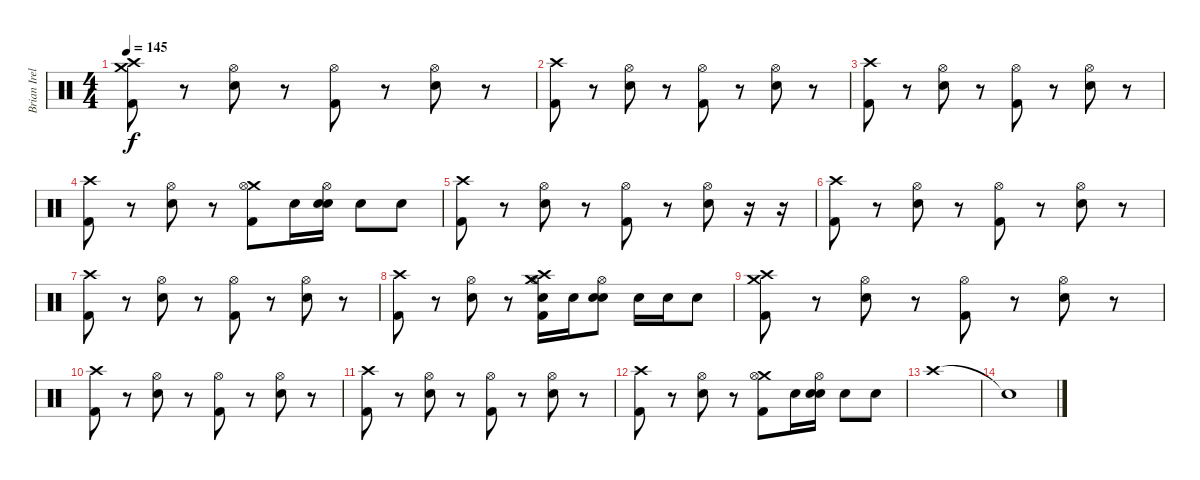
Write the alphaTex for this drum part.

\track ("Brian Ireland" "Brian Irel") {instrument percussion}
\staff {score}
\articulation defaults
\ts (4 4)
\tempo 145
\clef neutral
\ks c
("Crash medium (hit)" "Crash high (hit)" "Kick (hit) 2").8{dy f} r.8 ("Hi-Hat (open)" "Electric Snare (hit)").8 r.8 ("Hi-Hat (open)" "Kick (hit) 2").8 r.8 ("Hi-Hat (open)" "Electric Snare (hit)").8 r.8 |
("Crash high (hit)" "Kick (hit) 2").8 r.8 ("Hi-Hat (open)" "Electric Snare (hit)").8 r.8 ("Hi-Hat (open)" "Kick (hit) 2").8 r.8 ("Hi-Hat (open)" "Electric Snare (hit)").8 r.8 |
("Crash high (hit)" "Kick (hit) 2").8 r.8 ("Hi-Hat (open)" "Electric Snare (hit)").8 r.8 ("Hi-Hat (open)" "Kick (hit) 2").8 r.8 ("Hi-Hat (open)" "Electric Snare (hit)").8 r.8 |
("Crash high (hit)" "Kick (hit) 2").8 r.8 ("Hi-Hat (open)" "Electric Snare (hit)").8 r.8 ("Crash medium (hit)" "Hi-Hat (open)" "Kick (hit) 2").8 "Electric Snare (hit)".16 ("Electric Snare (hit)" "Hi-Hat (open)" "Electric Snare (hit)").16 "Electric Snare (hit)".8 "Electric Snare (hit)".8 |
("Crash high (hit)" "Kick (hit) 2").8 r.8 ("Hi-Hat (open)" "Electric Snare (hit)").8 r.8 ("Hi-Hat (open)" "Kick (hit) 2").8 r.8 ("Hi-Hat (open)" "Electric Snare (hit)").8 r.16 r.16 |
("Crash high (hit)" "Kick (hit) 2").8 r.8 ("Hi-Hat (open)" "Electric Snare (hit)").8 r.8 ("Hi-Hat (open)" "Kick (hit) 2").8 r.8 ("Hi-Hat (open)" "Electric Snare (hit)").8 r.8 |
("Crash high (hit)" "Kick (hit) 2").8 r.8 ("Hi-Hat (open)" "Electric Snare (hit)").8 r.8 ("Hi-Hat (open)" "Kick (hit) 2").8 r.8 ("Hi-Hat (open)" "Electric Snare (hit)").8 r.8 |
("Crash high (hit)" "Kick (hit) 2").8 r.8 ("Hi-Hat (open)" "Electric Snare (hit)").8 r.8 ("Crash medium (hit)" "Crash high (hit)" "Electric Snare (hit)" "Hi-Hat (open)" "Kick (hit) 2").16 "Electric Snare (hit)".16 ("Electric Snare (hit)" "Hi-Hat (open)" "Electric Snare (hit)").8 "Electric Snare (hit)".16 "Electric Snare (hit)".16 "Electric Snare (hit)".8 |
("Crash medium (hit)" "Crash high (hit)" "Kick (hit) 2").8 r.8 ("Hi-Hat (open)" "Electric Snare (hit)").8 r.8 ("Hi-Hat (open)" "Kick (hit) 2").8 r.8 ("Hi-Hat (open)" "Electric Snare (hit)").8 r.8 |
("Crash high (hit)" "Kick (hit) 2").8 r.8 ("Hi-Hat (open)" "Electric Snare (hit)").8 r.8 ("Hi-Hat (open)" "Kick (hit) 2").8 r.8 ("Hi-Hat (open)" "Electric Snare (hit)").8 r.8 |
("Crash high (hit)" "Kick (hit) 2").8 r.8 ("Hi-Hat (open)" "Electric Snare (hit)").8 r.8 ("Hi-Hat (open)" "Kick (hit) 2").8 r.8 ("Hi-Hat (open)" "Electric Snare (hit)").8 r.8 |
("Crash high (hit)" "Kick (hit) 2").8 r.8 ("Hi-Hat (open)" "Electric Snare (hit)").8 r.8 ("Crash medium (hit)" "Hi-Hat (open)" "Kick (hit) 2").8 "Electric Snare (hit)".16 ("Electric Snare (hit)" "Hi-Hat (open)" "Electric Snare (hit)").16 "Electric Snare (hit)".8 "Electric Snare (hit)".8 |
"Crash high (hit)".1 |
"Snare (hit)"{t}.1
